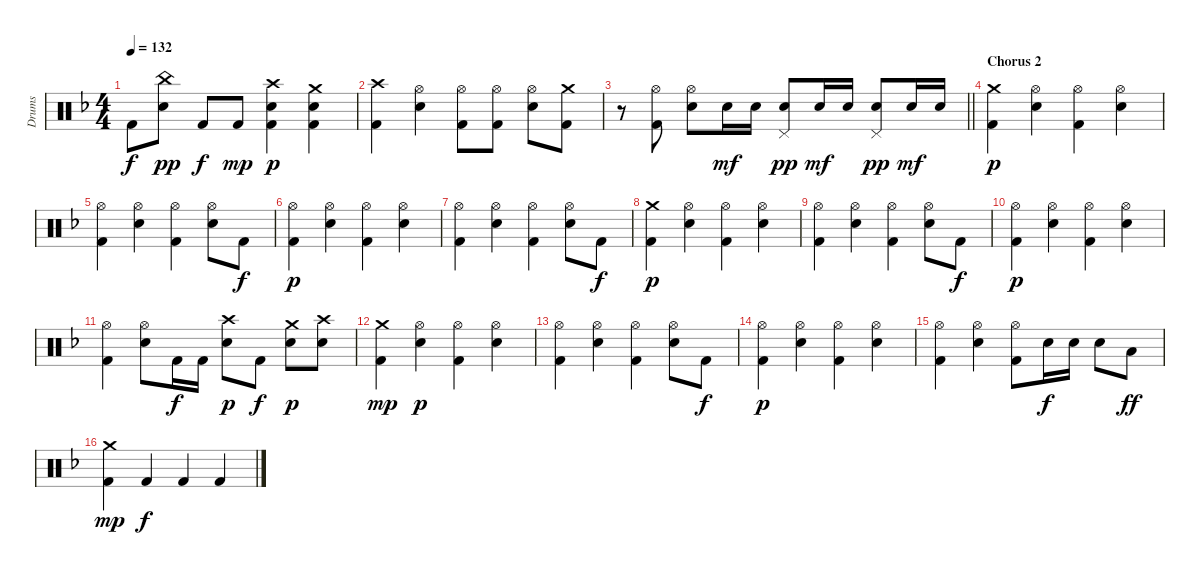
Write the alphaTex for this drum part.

\track ("Drums" "Drums") {instrument percussion}
\staff {score}
\articulation defaults
\ts (4 4)
\tempo 132
\clef neutral
\ks f "Kick (hit) 2".8{dy f}
("China (hit)" "Electric Snare (hit)").8{dy pp} "Kick (hit) 2".8{dy f} "Kick (hit) 2".8{dy mp} ("Kick (hit) 2" "Electric Snare (hit)" "Crash high (hit)").4{dy p} ("Kick (hit) 2" "Electric Snare (hit)" "Crash medium (hit)").4 |
("Kick (hit) 2" "Crash high (hit)").4 ("Electric Snare (hit)" "Hi-Hat (open)").4 ("Hi-Hat (open)" "Kick (hit) 2").8 ("Hi-Hat (open)" "Kick (hit) 2").8 ("Hi-Hat (open)" "Electric Snare (hit)").8 ("Crash medium (hit)" "Kick (hit) 2").8 |
\barLineRight lightlight
r.8 ("Kick (hit) 2" "Hi-Hat (open)").8 ("Hi-Hat (open)" "Electric Snare (hit)").8 "Electric Snare (hit)".16{dy mf} "Electric Snare (hit)".16 ("Electric Snare (hit)" "Pedal Hi-Hat (hit)").8{dy pp} "Electric Snare (hit)".16{dy mf} "Electric Snare (hit)".16 ("Electric Snare (hit)" "Pedal Hi-Hat (hit)").8{dy pp} "Electric Snare (hit)".16{dy mf} "Electric Snare (hit)".16 |
\section ("" "Chorus 2")
("Crash medium (hit)" "Kick (hit) 2").4{dy p} ("Hi-Hat (open)" "Electric Snare (hit)").4 ("Hi-Hat (open)" "Kick (hit) 2").4 ("Hi-Hat (open)" "Electric Snare (hit)").4 |
("Hi-Hat (open)" "Kick (hit) 2").4 ("Hi-Hat (open)" "Electric Snare (hit)").4 ("Hi-Hat (open)" "Kick (hit) 2").4 ("Hi-Hat (open)" "Electric Snare (hit)").8 "Kick (hit) 2".8{dy f} |
("Hi-Hat (open)" "Kick (hit) 2").4{dy p} ("Hi-Hat (open)" "Electric Snare (hit)").4 ("Hi-Hat (open)" "Kick (hit) 2").4 ("Hi-Hat (open)" "Electric Snare (hit)").4 |
("Hi-Hat (open)" "Kick (hit) 2").4 ("Hi-Hat (open)" "Electric Snare (hit)").4 ("Hi-Hat (open)" "Kick (hit) 2").4 ("Hi-Hat (open)" "Electric Snare (hit)").8 "Kick (hit) 2".8{dy f} |
("Crash medium (hit)" "Kick (hit) 2").4{dy p} ("Hi-Hat (open)" "Electric Snare (hit)").4 ("Hi-Hat (open)" "Kick (hit) 2").4 ("Hi-Hat (open)" "Electric Snare (hit)").4 |
("Hi-Hat (open)" "Kick (hit) 2").4 ("Hi-Hat (open)" "Electric Snare (hit)").4 ("Hi-Hat (open)" "Kick (hit) 2").4 ("Hi-Hat (open)" "Electric Snare (hit)").8 "Kick (hit) 2".8{dy f} |
("Hi-Hat (open)" "Kick (hit) 2").4{dy p} ("Hi-Hat (open)" "Electric Snare (hit)").4 ("Hi-Hat (open)" "Kick (hit) 2").4 ("Hi-Hat (open)" "Electric Snare (hit)").4 |
("Hi-Hat (open)" "Kick (hit) 2").4 ("Hi-Hat (open)" "Electric Snare (hit)").8 "Kick (hit) 2".16{dy f} "Kick (hit) 2".16 ("Crash high (hit)" "Electric Snare (hit)").8{dy p} "Kick (hit) 2".8{dy f} ("Crash medium (hit)" "Electric Snare (hit)").8{dy p} ("Crash high (hit)" "Electric Snare (hit)").8 |
("Crash medium (hit)" "Kick (hit) 2").4{dy mp} ("Hi-Hat (open)" "Electric Snare (hit)").4{dy p} ("Hi-Hat (open)" "Kick (hit) 2").4 ("Hi-Hat (open)" "Electric Snare (hit)").4 |
("Hi-Hat (open)" "Kick (hit) 2").4 ("Hi-Hat (open)" "Electric Snare (hit)").4 ("Hi-Hat (open)" "Kick (hit) 2").4 ("Hi-Hat (open)" "Electric Snare (hit)").8 "Kick (hit) 2".8{dy f} |
("Hi-Hat (open)" "Kick (hit) 2").4{dy p} ("Hi-Hat (open)" "Electric Snare (hit)").4 ("Hi-Hat (open)" "Kick (hit) 2").4 ("Hi-Hat (open)" "Electric Snare (hit)").4 |
("Hi-Hat (open)" "Kick (hit) 2").4 ("Hi-Hat (open)" "Electric Snare (hit)").4 ("Hi-Hat (open)" "Kick (hit) 2").8 "Electric Snare (hit)".16{dy f} "Electric Snare (hit)".16 "Electric Snare (hit)".8 "Low Tom (hit)".8{dy ff} |
("Crash medium (hit)" "Kick (hit) 2").4{dy mp} "Kick (hit) 2".4{dy f} "Kick (hit) 2".4 "Kick (hit) 2".4
